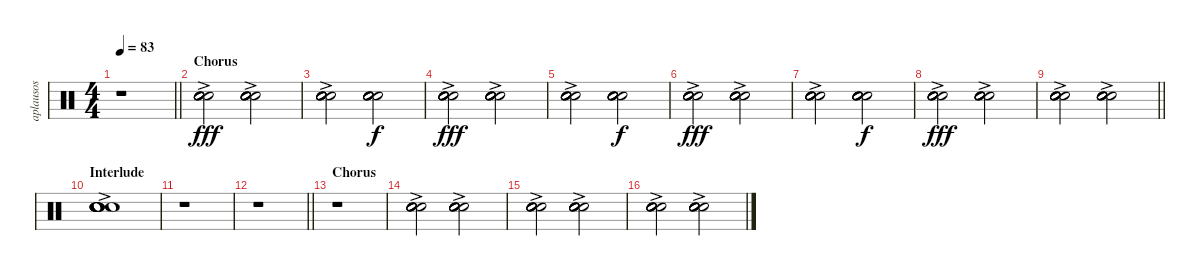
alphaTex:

\track ("aplausos" "aplausos") {instrument percussion}
\staff {score}
\articulation defaults
\ts (4 4)
\tempo 83
\clef neutral
\barLineRight lightlight
\ks c
r.1{dy fff} |
\section ("" "Chorus")
("Hand Clap (hit)"{ac} "Hand Clap (hit)"{ac} "Hand Clap (hit)"{ac} "Hand Clap (hit)"{ac} "Hand Clap (hit)"{ac} "Hand Clap (hit)"{ac}).2 ("Hand Clap (hit)"{ac} "Hand Clap (hit)"{ac} "Hand Clap (hit)"{ac} "Hand Clap (hit)"{ac} "Hand Clap (hit)"{ac} "Hand Clap (hit)"{ac}).2 |
("Hand Clap (hit)"{ac} "Hand Clap (hit)"{ac} "Hand Clap (hit)"{ac} "Hand Clap (hit)"{ac} "Hand Clap (hit)"{ac} "Hand Clap (hit)"{ac}).2 ("Hand Clap (hit)" "Hand Clap (hit)" "Hand Clap (hit)" "Hand Clap (hit)" "Hand Clap (hit)" "Hand Clap (hit)").2{dy f} |
("Hand Clap (hit)"{ac} "Hand Clap (hit)"{ac} "Hand Clap (hit)"{ac} "Hand Clap (hit)"{ac} "Hand Clap (hit)"{ac} "Hand Clap (hit)"{ac}).2{dy fff} ("Hand Clap (hit)"{ac} "Hand Clap (hit)"{ac} "Hand Clap (hit)"{ac} "Hand Clap (hit)"{ac} "Hand Clap (hit)"{ac} "Hand Clap (hit)"{ac}).2 |
("Hand Clap (hit)"{ac} "Hand Clap (hit)"{ac} "Hand Clap (hit)"{ac} "Hand Clap (hit)"{ac} "Hand Clap (hit)"{ac} "Hand Clap (hit)"{ac}).2 ("Hand Clap (hit)" "Hand Clap (hit)" "Hand Clap (hit)" "Hand Clap (hit)" "Hand Clap (hit)" "Hand Clap (hit)").2{dy f} |
("Hand Clap (hit)"{ac} "Hand Clap (hit)"{ac} "Hand Clap (hit)"{ac} "Hand Clap (hit)"{ac} "Hand Clap (hit)"{ac} "Hand Clap (hit)"{ac}).2{dy fff} ("Hand Clap (hit)"{ac} "Hand Clap (hit)"{ac} "Hand Clap (hit)"{ac} "Hand Clap (hit)"{ac} "Hand Clap (hit)"{ac} "Hand Clap (hit)"{ac}).2 |
("Hand Clap (hit)"{ac} "Hand Clap (hit)"{ac} "Hand Clap (hit)"{ac} "Hand Clap (hit)"{ac} "Hand Clap (hit)"{ac} "Hand Clap (hit)"{ac}).2 ("Hand Clap (hit)" "Hand Clap (hit)" "Hand Clap (hit)" "Hand Clap (hit)" "Hand Clap (hit)" "Hand Clap (hit)").2{dy f} |
("Hand Clap (hit)"{ac} "Hand Clap (hit)"{ac} "Hand Clap (hit)"{ac} "Hand Clap (hit)"{ac} "Hand Clap (hit)"{ac} "Hand Clap (hit)"{ac}).2{dy fff} ("Hand Clap (hit)"{ac} "Hand Clap (hit)"{ac} "Hand Clap (hit)"{ac} "Hand Clap (hit)"{ac} "Hand Clap (hit)"{ac} "Hand Clap (hit)"{ac}).2 |
\barLineRight lightlight
("Hand Clap (hit)"{ac} "Hand Clap (hit)"{ac} "Hand Clap (hit)"{ac} "Hand Clap (hit)"{ac} "Hand Clap (hit)"{ac} "Hand Clap (hit)"{ac}).2 ("Hand Clap (hit)"{ac} "Hand Clap (hit)"{ac} "Hand Clap (hit)"{ac} "Hand Clap (hit)"{ac} "Hand Clap (hit)"{ac} "Hand Clap (hit)"{ac}).2 |
\section ("" "Interlude")
("Hand Clap (hit)"{ac} "Hand Clap (hit)"{ac} "Hand Clap (hit)"{ac} "Hand Clap (hit)"{ac} "Hand Clap (hit)"{ac} "Hand Clap (hit)"{ac}).1 |
r.1 |
\barLineRight lightlight
r.1 |
\section ("" "Chorus")
r.1 |
("Hand Clap (hit)"{ac} "Hand Clap (hit)"{ac} "Hand Clap (hit)"{ac} "Hand Clap (hit)"{ac} "Hand Clap (hit)"{ac} "Hand Clap (hit)"{ac}).2 ("Hand Clap (hit)"{ac} "Hand Clap (hit)"{ac} "Hand Clap (hit)"{ac} "Hand Clap (hit)"{ac} "Hand Clap (hit)"{ac} "Hand Clap (hit)"{ac}).2 |
("Hand Clap (hit)"{ac} "Hand Clap (hit)"{ac} "Hand Clap (hit)"{ac} "Hand Clap (hit)"{ac} "Hand Clap (hit)"{ac} "Hand Clap (hit)"{ac}).2 ("Hand Clap (hit)"{ac} "Hand Clap (hit)"{ac} "Hand Clap (hit)"{ac} "Hand Clap (hit)"{ac} "Hand Clap (hit)"{ac} "Hand Clap (hit)"{ac}).2 |
("Hand Clap (hit)"{ac} "Hand Clap (hit)"{ac} "Hand Clap (hit)"{ac} "Hand Clap (hit)"{ac} "Hand Clap (hit)"{ac} "Hand Clap (hit)"{ac}).2 ("Hand Clap (hit)"{ac} "Hand Clap (hit)"{ac} "Hand Clap (hit)"{ac} "Hand Clap (hit)"{ac} "Hand Clap (hit)"{ac} "Hand Clap (hit)"{ac}).2
